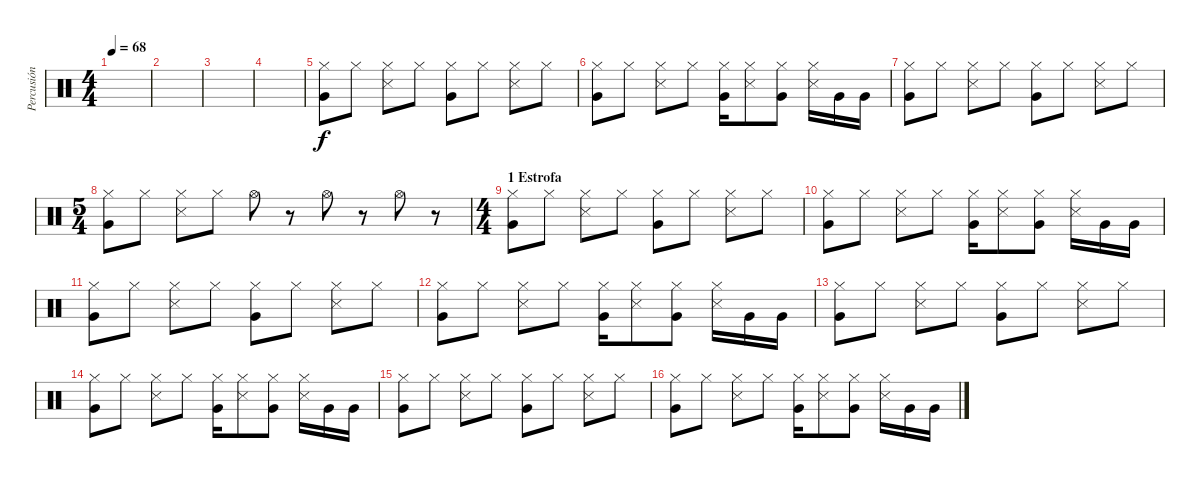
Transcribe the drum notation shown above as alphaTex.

\track ("Percusión" "Percusión") {instrument percussion}
\staff {score}
\articulation defaults
\ts (4 4)
\tempo 68
\clef neutral
\ks c
|
|
|
|
("Hi-Hat (closed)" "Very Low Tom (hit)").8 "Hi-Hat (closed)".8 ("Hi-Hat (closed)" "Snare (side stick) 3").8 "Hi-Hat (closed)".8 ("Hi-Hat (closed)" "Very Low Tom (hit)").8 "Hi-Hat (closed)".8 ("Hi-Hat (closed)" "Snare (side stick) 3").8 "Hi-Hat (closed)".8 |
("Hi-Hat (closed)" "Very Low Tom (hit)").8 "Hi-Hat (closed)".8 ("Hi-Hat (closed)" "Snare (side stick) 3").8 "Hi-Hat (closed)".8 ("Hi-Hat (closed)" "Very Low Tom (hit)").16 ("Hi-Hat (closed)" "Snare (side stick) 3").8 ("Hi-Hat (closed)" "Very Low Tom (hit)").8 ("Hi-Hat (closed)" "Snare (side stick) 3").16 "Very Low Tom (hit)".16 "Very Low Tom (hit)".16 |
("Hi-Hat (closed)" "Very Low Tom (hit)").8 "Hi-Hat (closed)".8 ("Hi-Hat (closed)" "Snare (side stick) 3").8 "Hi-Hat (closed)".8 ("Hi-Hat (closed)" "Very Low Tom (hit)").8 "Hi-Hat (closed)".8 ("Hi-Hat (closed)" "Snare (side stick) 3").8 "Hi-Hat (closed)".8 |
\ts (5 4)
("Hi-Hat (closed)" "Very Low Tom (hit)").8 "Hi-Hat (closed)".8 ("Hi-Hat (closed)" "Snare (side stick) 3").8 "Hi-Hat (closed)".8 "Hi-Hat (open)".8 r.8 "Hi-Hat (open)".8 r.8 "Hi-Hat (open)".8 r.8 |
\ts (4 4)
\section ("" "1 Estrofa")
("Hi-Hat (closed)" "Very Low Tom (hit)").8 "Hi-Hat (closed)".8 ("Hi-Hat (closed)" "Snare (side stick) 3").8 "Hi-Hat (closed)".8 ("Hi-Hat (closed)" "Very Low Tom (hit)").8 "Hi-Hat (closed)".8 ("Hi-Hat (closed)" "Snare (side stick) 3").8 "Hi-Hat (closed)".8 |
("Hi-Hat (closed)" "Very Low Tom (hit)").8 "Hi-Hat (closed)".8 ("Hi-Hat (closed)" "Snare (side stick) 3").8 "Hi-Hat (closed)".8 ("Hi-Hat (closed)" "Very Low Tom (hit)").16 ("Hi-Hat (closed)" "Snare (side stick) 3").8 ("Hi-Hat (closed)" "Very Low Tom (hit)").8 ("Hi-Hat (closed)" "Snare (side stick) 3").16 "Very Low Tom (hit)".16 "Very Low Tom (hit)".16 |
("Hi-Hat (closed)" "Very Low Tom (hit)").8 "Hi-Hat (closed)".8 ("Hi-Hat (closed)" "Snare (side stick) 3").8 "Hi-Hat (closed)".8 ("Hi-Hat (closed)" "Very Low Tom (hit)").8 "Hi-Hat (closed)".8 ("Hi-Hat (closed)" "Snare (side stick) 3").8 "Hi-Hat (closed)".8 |
("Hi-Hat (closed)" "Very Low Tom (hit)").8 "Hi-Hat (closed)".8 ("Hi-Hat (closed)" "Snare (side stick) 3").8 "Hi-Hat (closed)".8 ("Hi-Hat (closed)" "Very Low Tom (hit)").16 ("Hi-Hat (closed)" "Snare (side stick) 3").8 ("Hi-Hat (closed)" "Very Low Tom (hit)").8 ("Hi-Hat (closed)" "Snare (side stick) 3").16 "Very Low Tom (hit)".16 "Very Low Tom (hit)".16 |
("Hi-Hat (closed)" "Very Low Tom (hit)").8 "Hi-Hat (closed)".8 ("Hi-Hat (closed)" "Snare (side stick) 3").8 "Hi-Hat (closed)".8 ("Hi-Hat (closed)" "Very Low Tom (hit)").8 "Hi-Hat (closed)".8 ("Hi-Hat (closed)" "Snare (side stick) 3").8 "Hi-Hat (closed)".8 |
("Hi-Hat (closed)" "Very Low Tom (hit)").8 "Hi-Hat (closed)".8 ("Hi-Hat (closed)" "Snare (side stick) 3").8 "Hi-Hat (closed)".8 ("Hi-Hat (closed)" "Very Low Tom (hit)").16 ("Hi-Hat (closed)" "Snare (side stick) 3").8 ("Hi-Hat (closed)" "Very Low Tom (hit)").8 ("Hi-Hat (closed)" "Snare (side stick) 3").16 "Very Low Tom (hit)".16 "Very Low Tom (hit)".16 |
("Hi-Hat (closed)" "Very Low Tom (hit)").8 "Hi-Hat (closed)".8 ("Hi-Hat (closed)" "Snare (side stick) 3").8 "Hi-Hat (closed)".8 ("Hi-Hat (closed)" "Very Low Tom (hit)").8 "Hi-Hat (closed)".8 ("Hi-Hat (closed)" "Snare (side stick) 3").8 "Hi-Hat (closed)".8 |
("Hi-Hat (closed)" "Very Low Tom (hit)").8 "Hi-Hat (closed)".8 ("Hi-Hat (closed)" "Snare (side stick) 3").8 "Hi-Hat (closed)".8 ("Hi-Hat (closed)" "Very Low Tom (hit)").16 ("Hi-Hat (closed)" "Snare (side stick) 3").8 ("Hi-Hat (closed)" "Very Low Tom (hit)").8 ("Hi-Hat (closed)" "Snare (side stick) 3").16 "Very Low Tom (hit)".16 "Very Low Tom (hit)".16
